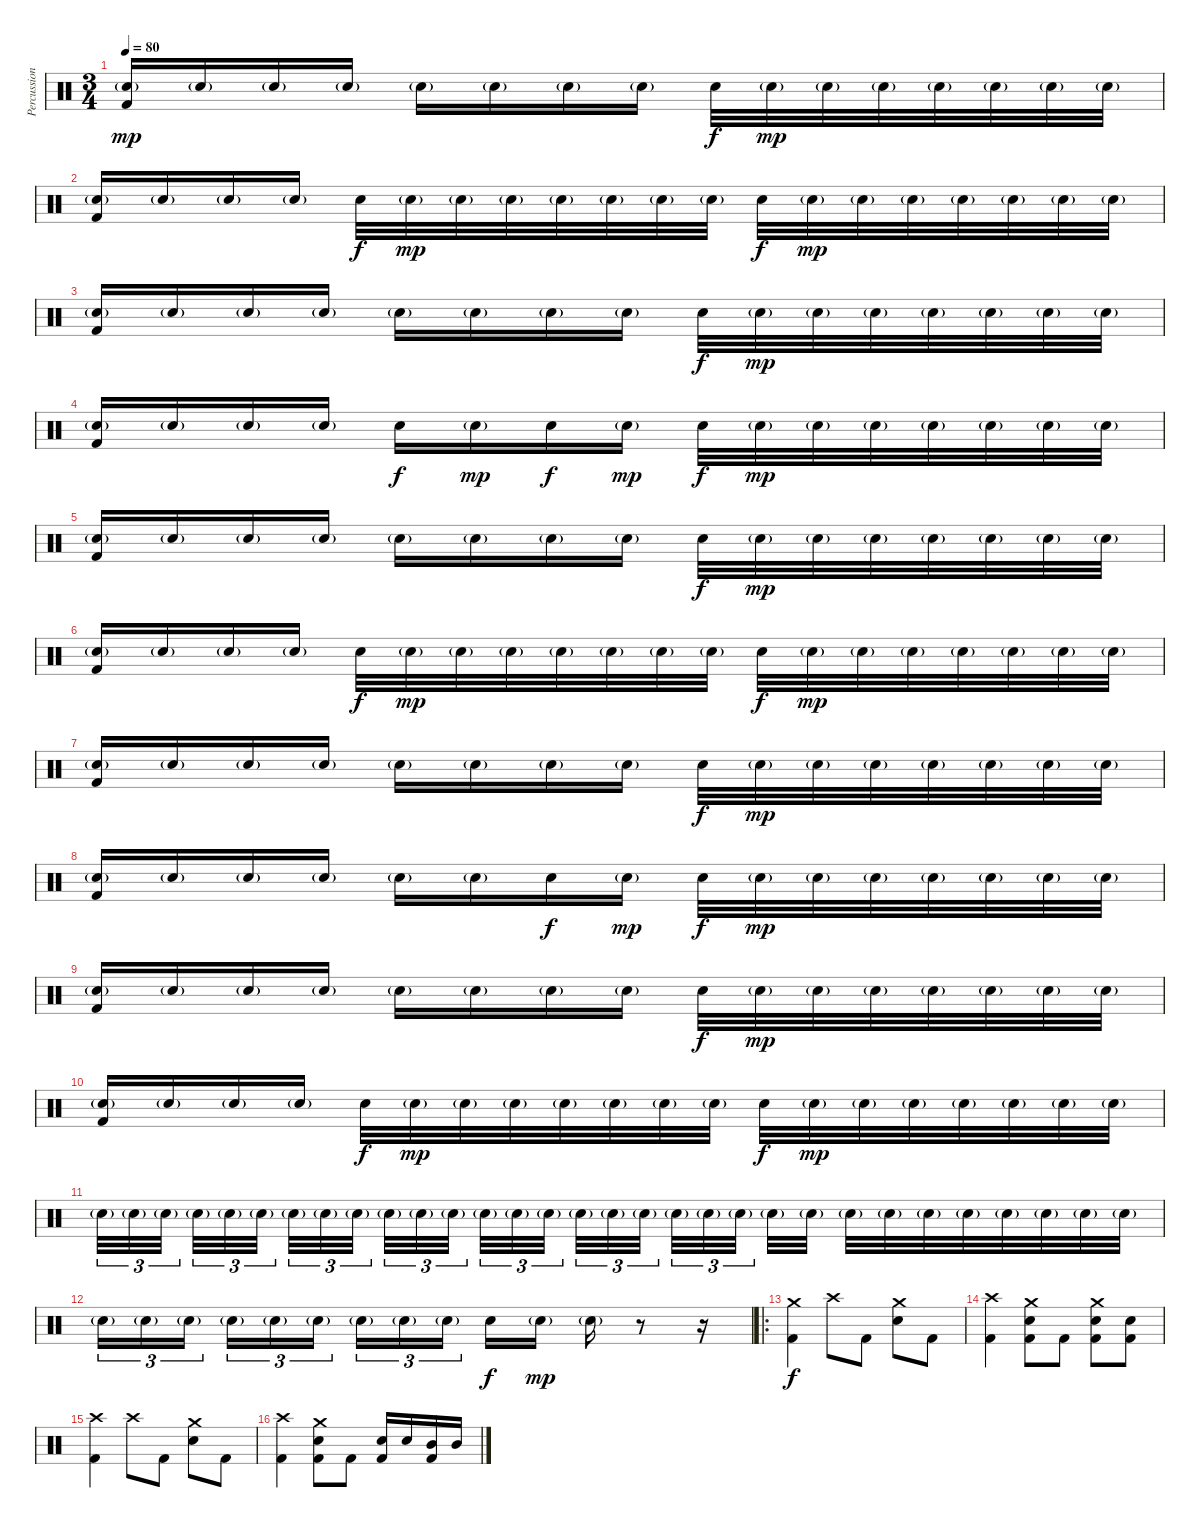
\track ("Percussion" "Percussion") {instrument percussion}
\staff {score}
\articulation defaults
\ts (3 4)
\tempo 80
\clef neutral
\ks c
("Electric Snare (hit)"{g} "Kick (hit) 2").16{dy mp} "Electric Snare (hit)"{g}.16 "Electric Snare (hit)"{g}.16 "Electric Snare (hit)"{g}.16 "Electric Snare (hit)"{g}.16 "Electric Snare (hit)"{g}.16 "Electric Snare (hit)"{g}.16 "Electric Snare (hit)"{g}.16 "Electric Snare (hit)".32{dy f} "Electric Snare (hit)"{g}.32{dy mp} "Electric Snare (hit)"{g}.32 "Electric Snare (hit)"{g}.32 "Electric Snare (hit)"{g}.32 "Electric Snare (hit)"{g}.32 "Electric Snare (hit)"{g}.32 "Electric Snare (hit)"{g}.32 |
("Electric Snare (hit)"{g} "Kick (hit) 2").16 "Electric Snare (hit)"{g}.16 "Electric Snare (hit)"{g}.16 "Electric Snare (hit)"{g}.16 "Electric Snare (hit)".32{dy f} "Electric Snare (hit)"{g}.32{dy mp} "Electric Snare (hit)"{g}.32 "Electric Snare (hit)"{g}.32 "Electric Snare (hit)"{g}.32 "Electric Snare (hit)"{g}.32 "Electric Snare (hit)"{g}.32 "Electric Snare (hit)"{g}.32 "Electric Snare (hit)".32{dy f} "Electric Snare (hit)"{g}.32{dy mp} "Electric Snare (hit)"{g}.32 "Electric Snare (hit)"{g}.32 "Electric Snare (hit)"{g}.32 "Electric Snare (hit)"{g}.32 "Electric Snare (hit)"{g}.32 "Electric Snare (hit)"{g}.32 |
("Electric Snare (hit)"{g} "Kick (hit) 2").16 "Electric Snare (hit)"{g}.16 "Electric Snare (hit)"{g}.16 "Electric Snare (hit)"{g}.16 "Electric Snare (hit)"{g}.16 "Electric Snare (hit)"{g}.16 "Electric Snare (hit)"{g}.16 "Electric Snare (hit)"{g}.16 "Electric Snare (hit)".32{dy f} "Electric Snare (hit)"{g}.32{dy mp} "Electric Snare (hit)"{g}.32 "Electric Snare (hit)"{g}.32 "Electric Snare (hit)"{g}.32 "Electric Snare (hit)"{g}.32 "Electric Snare (hit)"{g}.32 "Electric Snare (hit)"{g}.32 |
("Electric Snare (hit)"{g} "Kick (hit) 2").16 "Electric Snare (hit)"{g}.16 "Electric Snare (hit)"{g}.16 "Electric Snare (hit)"{g}.16 "Electric Snare (hit)".16{dy f} "Electric Snare (hit)"{g}.16{dy mp} "Electric Snare (hit)".16{dy f} "Electric Snare (hit)"{g}.16{dy mp} "Electric Snare (hit)".32{dy f} "Electric Snare (hit)"{g}.32{dy mp} "Electric Snare (hit)"{g}.32 "Electric Snare (hit)"{g}.32 "Electric Snare (hit)"{g}.32 "Electric Snare (hit)"{g}.32 "Electric Snare (hit)"{g}.32 "Electric Snare (hit)"{g}.32 |
("Electric Snare (hit)"{g} "Kick (hit) 2").16 "Electric Snare (hit)"{g}.16 "Electric Snare (hit)"{g}.16 "Electric Snare (hit)"{g}.16 "Electric Snare (hit)"{g}.16 "Electric Snare (hit)"{g}.16 "Electric Snare (hit)"{g}.16 "Electric Snare (hit)"{g}.16 "Electric Snare (hit)".32{dy f} "Electric Snare (hit)"{g}.32{dy mp} "Electric Snare (hit)"{g}.32 "Electric Snare (hit)"{g}.32 "Electric Snare (hit)"{g}.32 "Electric Snare (hit)"{g}.32 "Electric Snare (hit)"{g}.32 "Electric Snare (hit)"{g}.32 |
("Electric Snare (hit)"{g} "Kick (hit) 2").16 "Electric Snare (hit)"{g}.16 "Electric Snare (hit)"{g}.16 "Electric Snare (hit)"{g}.16 "Electric Snare (hit)".32{dy f} "Electric Snare (hit)"{g}.32{dy mp} "Electric Snare (hit)"{g}.32 "Electric Snare (hit)"{g}.32 "Electric Snare (hit)"{g}.32 "Electric Snare (hit)"{g}.32 "Electric Snare (hit)"{g}.32 "Electric Snare (hit)"{g}.32 "Electric Snare (hit)".32{dy f} "Electric Snare (hit)"{g}.32{dy mp} "Electric Snare (hit)"{g}.32 "Electric Snare (hit)"{g}.32 "Electric Snare (hit)"{g}.32 "Electric Snare (hit)"{g}.32 "Electric Snare (hit)"{g}.32 "Electric Snare (hit)"{g}.32 |
("Electric Snare (hit)"{g} "Kick (hit) 2").16 "Electric Snare (hit)"{g}.16 "Electric Snare (hit)"{g}.16 "Electric Snare (hit)"{g}.16 "Electric Snare (hit)"{g}.16 "Electric Snare (hit)"{g}.16 "Electric Snare (hit)"{g}.16 "Electric Snare (hit)"{g}.16 "Electric Snare (hit)".32{dy f} "Electric Snare (hit)"{g}.32{dy mp} "Electric Snare (hit)"{g}.32 "Electric Snare (hit)"{g}.32 "Electric Snare (hit)"{g}.32 "Electric Snare (hit)"{g}.32 "Electric Snare (hit)"{g}.32 "Electric Snare (hit)"{g}.32 |
("Electric Snare (hit)"{g} "Kick (hit) 2").16 "Electric Snare (hit)"{g}.16 "Electric Snare (hit)"{g}.16 "Electric Snare (hit)"{g}.16 "Electric Snare (hit)"{g}.16 "Electric Snare (hit)"{g}.16 "Electric Snare (hit)".16{dy f} "Electric Snare (hit)"{g}.16{dy mp} "Electric Snare (hit)".32{dy f} "Electric Snare (hit)"{g}.32{dy mp} "Electric Snare (hit)"{g}.32 "Electric Snare (hit)"{g}.32 "Electric Snare (hit)"{g}.32 "Electric Snare (hit)"{g}.32 "Electric Snare (hit)"{g}.32 "Electric Snare (hit)"{g}.32 |
("Electric Snare (hit)"{g} "Kick (hit) 2").16 "Electric Snare (hit)"{g}.16 "Electric Snare (hit)"{g}.16 "Electric Snare (hit)"{g}.16 "Electric Snare (hit)"{g}.16 "Electric Snare (hit)"{g}.16 "Electric Snare (hit)"{g}.16 "Electric Snare (hit)"{g}.16 "Electric Snare (hit)".32{dy f} "Electric Snare (hit)"{g}.32{dy mp} "Electric Snare (hit)"{g}.32 "Electric Snare (hit)"{g}.32 "Electric Snare (hit)"{g}.32 "Electric Snare (hit)"{g}.32 "Electric Snare (hit)"{g}.32 "Electric Snare (hit)"{g}.32 |
("Electric Snare (hit)"{g} "Kick (hit) 2").16 "Electric Snare (hit)"{g}.16 "Electric Snare (hit)"{g}.16 "Electric Snare (hit)"{g}.16 "Electric Snare (hit)".32{dy f} "Electric Snare (hit)"{g}.32{dy mp} "Electric Snare (hit)"{g}.32 "Electric Snare (hit)"{g}.32 "Electric Snare (hit)"{g}.32 "Electric Snare (hit)"{g}.32 "Electric Snare (hit)"{g}.32 "Electric Snare (hit)"{g}.32 "Electric Snare (hit)".32{dy f} "Electric Snare (hit)"{g}.32{dy mp} "Electric Snare (hit)"{g}.32 "Electric Snare (hit)"{g}.32 "Electric Snare (hit)"{g}.32 "Electric Snare (hit)"{g}.32 "Electric Snare (hit)"{g}.32 "Electric Snare (hit)"{g}.32 |
"Electric Snare (hit)"{g}.32{tu (3 2)} "Electric Snare (hit)"{g}.32{tu (3 2)} "Electric Snare (hit)"{g}.32{tu (3 2) beam splitsecondary} "Electric Snare (hit)"{g}.32{tu (3 2)} "Electric Snare (hit)"{g}.32{tu (3 2)} "Electric Snare (hit)"{g}.32{tu (3 2) beam splitsecondary} "Electric Snare (hit)"{g}.32{tu (3 2)} "Electric Snare (hit)"{g}.32{tu (3 2)} "Electric Snare (hit)"{g}.32{tu (3 2) beam splitsecondary} "Electric Snare (hit)"{g}.32{tu (3 2)} "Electric Snare (hit)"{g}.32{tu (3 2)} "Electric Snare (hit)"{g}.32{tu (3 2)} "Electric Snare (hit)"{g}.32{tu (3 2)} "Electric Snare (hit)"{g}.32{tu (3 2)} "Electric Snare (hit)"{g}.32{tu (3 2) beam splitsecondary} "Electric Snare (hit)"{g}.32{tu (3 2)} "Electric Snare (hit)"{g}.32{tu (3 2)} "Electric Snare (hit)"{g}.32{tu (3 2) beam splitsecondary} "Electric Snare (hit)"{g}.32{tu (3 2)} "Electric Snare (hit)"{g}.32{tu (3 2)} "Electric Snare (hit)"{g}.32{tu (3 2) beam splitsecondary} "Electric Snare (hit)"{g}.32 "Electric Snare (hit)"{g}.32 "Electric Snare (hit)"{g}.32 "Electric Snare (hit)"{g}.32 "Electric Snare (hit)"{g}.32 "Electric Snare (hit)"{g}.32 "Electric Snare (hit)"{g}.32 "Electric Snare (hit)"{g}.32 "Electric Snare (hit)"{g}.32 "Electric Snare (hit)"{g}.32 |
"Electric Snare (hit)"{g}.16{tu (3 2)} "Electric Snare (hit)"{g}.16{tu (3 2)} "Electric Snare (hit)"{g}.16{tu (3 2) beam splitsecondary} "Electric Snare (hit)"{g}.16{tu (3 2)} "Electric Snare (hit)"{g}.16{tu (3 2)} "Electric Snare (hit)"{g}.16{tu (3 2)} "Electric Snare (hit)"{g}.16{tu (3 2)} "Electric Snare (hit)"{g}.16{tu (3 2)} "Electric Snare (hit)"{g}.16{tu (3 2) beam splitsecondary} "Electric Snare (hit)".16{dy f} "Electric Snare (hit)"{g}.16{dy mp} "Electric Snare (hit)"{g}.16 r.8 r.16 |
\ro
("Crash medium (hit)" "Kick (hit) 2").4{dy f} "Crash high (hit)".8 "Kick (hit) 2".8 ("Crash medium (hit)" "Electric Snare (hit)").8 "Kick (hit) 2".8 |
("Crash high (hit)" "Kick (hit) 2").4 ("Crash medium (hit)" "Electric Snare (hit)" "Kick (hit) 2").8 "Kick (hit) 2".8 ("Crash medium (hit)" "Electric Snare (hit)" "Kick (hit) 2").8 ("Electric Snare (hit)" "Kick (hit) 2").8 |
("Crash high (hit)" "Kick (hit) 2").4 "Crash high (hit)".8 "Kick (hit) 2".8 ("Crash medium (hit)" "Electric Snare (hit)").8 "Kick (hit) 2".8 |
("Crash high (hit)" "Kick (hit) 2").4 ("Crash medium (hit)" "Electric Snare (hit)" "Kick (hit) 2").8 "Kick (hit) 2".8 ("Electric Snare (hit)" "Kick (hit) 2").16 "Electric Snare (hit)".16 ("Mid Tom (hit)" "Kick (hit) 2").16 "Mid Tom (hit)".16
